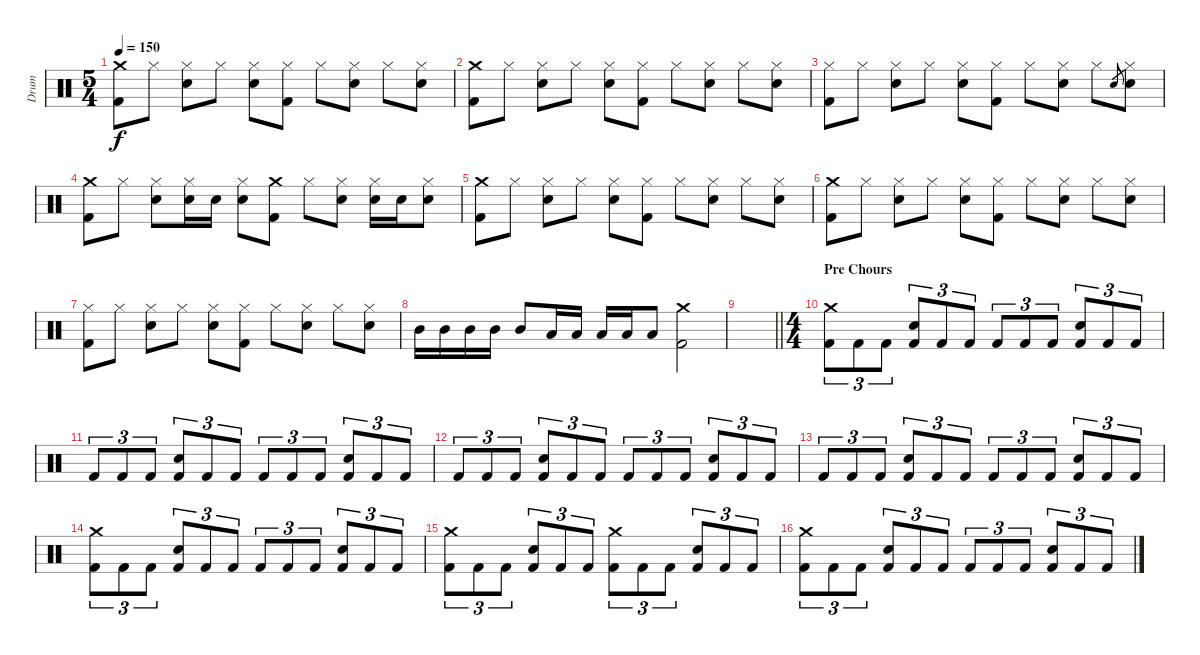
\track ("Drum" "Drum") {instrument percussion}
\staff
\articulation defaults
\ts (5 4)
\tempo 150
\clef neutral
\ks c
("Crash medium (hit)" "Kick (hit) 2").8{dy f} "Hi-Hat (closed)".8 ("Hi-Hat (closed)" "Electric Snare (hit)").8 "Hi-Hat (closed)".8 ("Hi-Hat (closed)" "Electric Snare (hit)").8 ("Hi-Hat (closed)" "Kick (hit) 2").8 "Hi-Hat (closed)".8 ("Hi-Hat (closed)" "Electric Snare (hit)").8 "Hi-Hat (closed)".8 ("Hi-Hat (closed)" "Electric Snare (hit)").8 |
("Crash medium (hit)" "Kick (hit) 2").8 "Hi-Hat (closed)".8 ("Hi-Hat (closed)" "Electric Snare (hit)").8 "Hi-Hat (closed)".8 ("Hi-Hat (closed)" "Electric Snare (hit)").8 ("Hi-Hat (closed)" "Kick (hit) 2").8 "Hi-Hat (closed)".8 ("Hi-Hat (closed)" "Electric Snare (hit)").8 "Hi-Hat (closed)".8 ("Hi-Hat (closed)" "Electric Snare (hit)").8 |
("Hi-Hat (closed)" "Kick (hit) 2").8 "Hi-Hat (closed)".8 ("Hi-Hat (closed)" "Electric Snare (hit)").8 "Hi-Hat (closed)".8 ("Hi-Hat (closed)" "Electric Snare (hit)").8 ("Hi-Hat (closed)" "Kick (hit) 2").8 "Hi-Hat (closed)".8 ("Hi-Hat (closed)" "Electric Snare (hit)").8 "Hi-Hat (closed)".8 "Electric Snare (hit)".8{gr} ("Hi-Hat (closed)" "Electric Snare (hit)").8 |
("Crash medium (hit)" "Kick (hit) 2").8 "Hi-Hat (closed)".8 ("Hi-Hat (closed)" "Electric Snare (hit)").8 ("Hi-Hat (closed)" "Electric Snare (hit)").16 "Electric Snare (hit)".16 ("Hi-Hat (closed)" "Electric Snare (hit)").8 ("Crash medium (hit)" "Kick (hit) 2").8 "Hi-Hat (closed)".8 ("Hi-Hat (closed)" "Electric Snare (hit)").8 ("Hi-Hat (closed)" "Electric Snare (hit)").16 "Electric Snare (hit)".16 ("Hi-Hat (closed)" "Electric Snare (hit)").8 |
("Crash medium (hit)" "Kick (hit) 2").8 "Hi-Hat (closed)".8 ("Hi-Hat (closed)" "Electric Snare (hit)").8 "Hi-Hat (closed)".8 ("Hi-Hat (closed)" "Electric Snare (hit)").8 ("Hi-Hat (closed)" "Kick (hit) 2").8 "Hi-Hat (closed)".8 ("Hi-Hat (closed)" "Electric Snare (hit)").8 "Hi-Hat (closed)".8 ("Hi-Hat (closed)" "Electric Snare (hit)").8 |
("Crash medium (hit)" "Kick (hit) 2").8 "Hi-Hat (closed)".8 ("Hi-Hat (closed)" "Electric Snare (hit)").8 "Hi-Hat (closed)".8 ("Hi-Hat (closed)" "Electric Snare (hit)").8 ("Hi-Hat (closed)" "Kick (hit) 2").8 "Hi-Hat (closed)".8 ("Hi-Hat (closed)" "Electric Snare (hit)").8 "Hi-Hat (closed)".8 ("Hi-Hat (closed)" "Electric Snare (hit)").8 |
("Hi-Hat (closed)" "Kick (hit) 2").8 "Hi-Hat (closed)".8 ("Hi-Hat (closed)" "Electric Snare (hit)").8 "Hi-Hat (closed)".8 ("Hi-Hat (closed)" "Electric Snare (hit)").8 ("Hi-Hat (closed)" "Kick (hit) 2").8 "Hi-Hat (closed)".8 ("Hi-Hat (closed)" "Electric Snare (hit)").8 "Hi-Hat (closed)".8 ("Hi-Hat (closed)" "Electric Snare (hit)").8 |
"Mid Tom (hit)".16 "Mid Tom (hit)".16 "Mid Tom (hit)".16 "Mid Tom (hit)".16 "Mid Tom (hit)".8 "Low Tom (hit)".16 "Low Tom (hit)".16 "Low Tom (hit)".16 "Low Tom (hit)".16 "Low Tom (hit)".8 ("Crash medium (hit)" "Kick (hit) 2").2 |
\barLineRight lightlight
|
\ts (4 4)
\section ("" "Pre Chours")
("Crash medium (hit)" "Kick (hit) 2").8{tu (3 2)} "Kick (hit) 2".8{tu (3 2)} "Kick (hit) 2".8{tu (3 2)} ("Electric Snare (hit)" "Kick (hit) 2").8{tu (3 2)} "Kick (hit) 2".8{tu (3 2)} "Kick (hit) 2".8{tu (3 2)} "Kick (hit) 2".8{tu (3 2)} "Kick (hit) 2".8{tu (3 2)} "Kick (hit) 2".8{tu (3 2)} ("Electric Snare (hit)" "Kick (hit) 2").8{tu (3 2)} "Kick (hit) 2".8{tu (3 2)} "Kick (hit) 2".8{tu (3 2)} |
"Kick (hit) 2".8{tu (3 2)} "Kick (hit) 2".8{tu (3 2)} "Kick (hit) 2".8{tu (3 2)} ("Electric Snare (hit)" "Kick (hit) 2").8{tu (3 2)} "Kick (hit) 2".8{tu (3 2)} "Kick (hit) 2".8{tu (3 2)} "Kick (hit) 2".8{tu (3 2)} "Kick (hit) 2".8{tu (3 2)} "Kick (hit) 2".8{tu (3 2)} ("Electric Snare (hit)" "Kick (hit) 2").8{tu (3 2)} "Kick (hit) 2".8{tu (3 2)} "Kick (hit) 2".8{tu (3 2)} |
"Kick (hit) 2".8{tu (3 2)} "Kick (hit) 2".8{tu (3 2)} "Kick (hit) 2".8{tu (3 2)} ("Electric Snare (hit)" "Kick (hit) 2").8{tu (3 2)} "Kick (hit) 2".8{tu (3 2)} "Kick (hit) 2".8{tu (3 2)} "Kick (hit) 2".8{tu (3 2)} "Kick (hit) 2".8{tu (3 2)} "Kick (hit) 2".8{tu (3 2)} ("Electric Snare (hit)" "Kick (hit) 2").8{tu (3 2)} "Kick (hit) 2".8{tu (3 2)} "Kick (hit) 2".8{tu (3 2)} |
"Kick (hit) 2".8{tu (3 2)} "Kick (hit) 2".8{tu (3 2)} "Kick (hit) 2".8{tu (3 2)} ("Electric Snare (hit)" "Kick (hit) 2").8{tu (3 2)} "Kick (hit) 2".8{tu (3 2)} "Kick (hit) 2".8{tu (3 2)} "Kick (hit) 2".8{tu (3 2)} "Kick (hit) 2".8{tu (3 2)} "Kick (hit) 2".8{tu (3 2)} ("Electric Snare (hit)" "Kick (hit) 2").8{tu (3 2)} "Kick (hit) 2".8{tu (3 2)} "Kick (hit) 2".8{tu (3 2)} |
("Crash medium (hit)" "Kick (hit) 2").8{tu (3 2)} "Kick (hit) 2".8{tu (3 2)} "Kick (hit) 2".8{tu (3 2)} ("Electric Snare (hit)" "Kick (hit) 2").8{tu (3 2)} "Kick (hit) 2".8{tu (3 2)} "Kick (hit) 2".8{tu (3 2)} "Kick (hit) 2".8{tu (3 2)} "Kick (hit) 2".8{tu (3 2)} "Kick (hit) 2".8{tu (3 2)} ("Electric Snare (hit)" "Kick (hit) 2").8{tu (3 2)} "Kick (hit) 2".8{tu (3 2)} "Kick (hit) 2".8{tu (3 2)} |
("Crash medium (hit)" "Kick (hit) 2").8{tu (3 2)} "Kick (hit) 2".8{tu (3 2)} "Kick (hit) 2".8{tu (3 2)} ("Electric Snare (hit)" "Kick (hit) 2").8{tu (3 2)} "Kick (hit) 2".8{tu (3 2)} "Kick (hit) 2".8{tu (3 2)} ("Crash medium (hit)" "Kick (hit) 2").8{tu (3 2)} "Kick (hit) 2".8{tu (3 2)} "Kick (hit) 2".8{tu (3 2)} ("Electric Snare (hit)" "Kick (hit) 2").8{tu (3 2)} "Kick (hit) 2".8{tu (3 2)} "Kick (hit) 2".8{tu (3 2)} |
("Crash medium (hit)" "Kick (hit) 2").8{tu (3 2)} "Kick (hit) 2".8{tu (3 2)} "Kick (hit) 2".8{tu (3 2)} ("Electric Snare (hit)" "Kick (hit) 2").8{tu (3 2)} "Kick (hit) 2".8{tu (3 2)} "Kick (hit) 2".8{tu (3 2)} "Kick (hit) 2".8{tu (3 2)} "Kick (hit) 2".8{tu (3 2)} "Kick (hit) 2".8{tu (3 2)} ("Electric Snare (hit)" "Kick (hit) 2").8{tu (3 2)} "Kick (hit) 2".8{tu (3 2)} "Kick (hit) 2".8{tu (3 2)}
